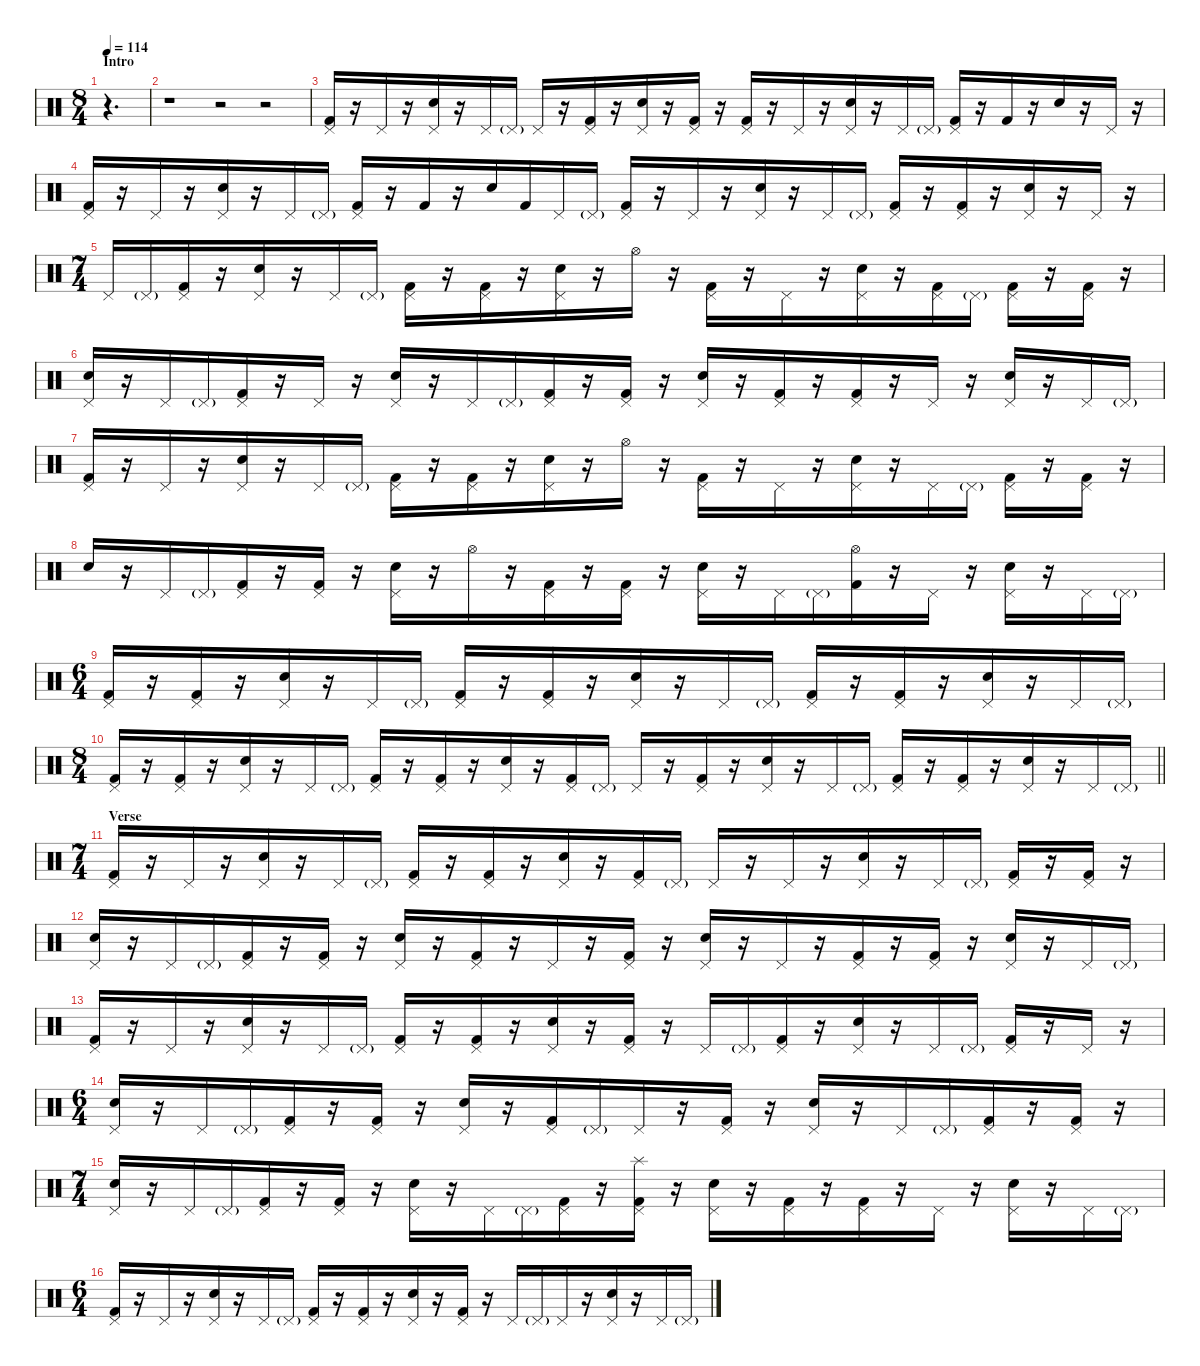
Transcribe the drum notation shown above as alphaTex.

\defaultSystemsLayout 4
\hideDynamics
\bracketExtendMode nobrackets
\singleTrackTrackNamePolicy hidden
\multiTrackTrackNamePolicy hidden
\firstSystemTrackNameMode fullname
\firstSystemTrackNameOrientation horizontal
\otherSystemsTrackNameOrientation horizontal
\track ("Drums" "drm.") {instrument percussion}
\staff {score}
\articulation defaults
\ts (8 4)
\beaming (8 4 4 4 4)
\section ("" "Intro")
\ac
\tempo 114
\clef neutral
\ks c
r.4{d dy f beam Down} |
r.1{beam Down} r.2{beam Down} r.2{beam Down} |
("Pedal Hi-Hat (hit)" "Kick (hit) 2").16{beam Up} r.16{beam Up} "Pedal Hi-Hat (hit)".16{beam Up} r.16{beam Up} ("Pedal Hi-Hat (hit)" "Snare (hit) 2").16{beam Up} r.16{beam Up} "Pedal Hi-Hat (hit)".16{beam Up} "Pedal Hi-Hat (hit)"{g}.16{dy mf beam Up} "Pedal Hi-Hat (hit)".16{dy f beam Up} r.16{beam Up} ("Pedal Hi-Hat (hit)" "Kick (hit) 2").16{beam Up} r.16{beam Up} ("Pedal Hi-Hat (hit)" "Snare (hit) 2").16{beam Up} r.16{beam Up} ("Pedal Hi-Hat (hit)" "Kick (hit) 2").16{beam Up} r.16{beam Up} ("Pedal Hi-Hat (hit)" "Kick (hit) 2").16{beam Up} r.16{beam Up} "Pedal Hi-Hat (hit)".16{beam Up} r.16{beam Up} ("Pedal Hi-Hat (hit)" "Snare (hit) 2").16{beam Up} r.16{beam Up} "Pedal Hi-Hat (hit)".16{beam Up} "Pedal Hi-Hat (hit)"{g}.16{dy mf beam Up} ("Pedal Hi-Hat (hit)" "Kick (hit) 2").16{dy f beam Up} r.16{beam Up} "Kick (hit) 2".16{beam Up} r.16{beam Up} "Snare (hit) 2".16{beam Up} r.16{beam Up} "Pedal Hi-Hat (hit)".16{beam Up} r.16{beam Up} |
("Pedal Hi-Hat (hit)" "Kick (hit) 2").16{beam Up} r.16{beam Up} "Pedal Hi-Hat (hit)".16{beam Up} r.16{beam Up} ("Pedal Hi-Hat (hit)" "Snare (hit) 2").16{beam Up} r.16{beam Up} "Pedal Hi-Hat (hit)".16{beam Up} "Pedal Hi-Hat (hit)"{g}.16{dy mf beam Up} ("Pedal Hi-Hat (hit)" "Kick (hit) 2").16{dy f beam Up} r.16{beam Up} "Kick (hit) 2".16{beam Up} r.16{beam Up} "Snare (hit) 2".16{beam Up} "Kick (hit) 2".16{beam Up} "Pedal Hi-Hat (hit)".16{beam Up} "Pedal Hi-Hat (hit)"{g}.16{dy mf beam Up} ("Pedal Hi-Hat (hit)" "Kick (hit) 2").16{dy f beam Up} r.16{beam Up} "Pedal Hi-Hat (hit)".16{beam Up} r.16{beam Up} ("Pedal Hi-Hat (hit)" "Snare (hit) 2").16{beam Up} r.16{beam Up} "Pedal Hi-Hat (hit)".16{beam Up} "Pedal Hi-Hat (hit)"{g}.16{dy mf beam Up} ("Pedal Hi-Hat (hit)" "Kick (hit) 2").16{dy f beam Up} r.16{beam Up} ("Pedal Hi-Hat (hit)" "Kick (hit) 2").16{beam Up} r.16{beam Up} ("Pedal Hi-Hat (hit)" "Snare (hit) 2").16{beam Up} r.16{beam Up} "Pedal Hi-Hat (hit)".16{beam Up} r.16{beam Up} |
\ts (7 4)
\beaming (8 4 4 4 4)
"Pedal Hi-Hat (hit)".16{beam Up} "Pedal Hi-Hat (hit)"{g}.16{dy mf beam Up} ("Pedal Hi-Hat (hit)" "Kick (hit) 2").16{dy f beam Up} r.16{beam Up} ("Pedal Hi-Hat (hit)" "Snare (hit) 2").16{beam Up} r.16{beam Up} "Pedal Hi-Hat (hit)".16{beam Up} "Pedal Hi-Hat (hit)"{g}.16{dy mf beam Up} ("Pedal Hi-Hat (hit)" "Kick (hit) 2").16{dy f beam Down} r.16{beam Down} ("Pedal Hi-Hat (hit)" "Kick (hit) 2").16{beam Down} r.16{beam Down} ("Pedal Hi-Hat (hit)" "Snare (hit) 2").16{beam Down} r.16{beam Down} "Hi-Hat (open)".16{beam Down} r.16{beam Down} ("Pedal Hi-Hat (hit)" "Kick (hit) 2").16{beam Down} r.16{beam Down} "Pedal Hi-Hat (hit)".16{beam Down} r.16{beam Down} ("Pedal Hi-Hat (hit)" "Snare (hit) 2").16{beam Down} r.16{beam Down} ("Pedal Hi-Hat (hit)" "Kick (hit) 2").16{beam Down} "Pedal Hi-Hat (hit)"{g}.16{dy mf beam Down} ("Pedal Hi-Hat (hit)" "Kick (hit) 2").16{dy f beam Down} r.16{beam Down} ("Pedal Hi-Hat (hit)" "Kick (hit) 2").16{beam Down} r.16{beam Down} |
("Pedal Hi-Hat (hit)" "Snare (hit) 2").16{beam Up} r.16{beam Up} "Pedal Hi-Hat (hit)".16{beam Up} "Pedal Hi-Hat (hit)"{g}.16{dy mf beam Up} ("Pedal Hi-Hat (hit)" "Kick (hit) 2").16{dy f beam Up} r.16{beam Up} "Pedal Hi-Hat (hit)".16{beam Up} r.16{beam Up} ("Pedal Hi-Hat (hit)" "Snare (hit) 2").16{beam Up} r.16{beam Up} "Pedal Hi-Hat (hit)".16{beam Up} "Pedal Hi-Hat (hit)"{g}.16{dy mf beam Up} ("Pedal Hi-Hat (hit)" "Kick (hit) 2").16{dy f beam Up} r.16{beam Up} ("Pedal Hi-Hat (hit)" "Kick (hit) 2").16{beam Up} r.16{beam Up} ("Pedal Hi-Hat (hit)" "Snare (hit) 2").16{beam Up} r.16{beam Up} ("Pedal Hi-Hat (hit)" "Kick (hit) 2").16{beam Up} r.16{beam Up} ("Pedal Hi-Hat (hit)" "Kick (hit) 2").16{beam Up} r.16{beam Up} "Pedal Hi-Hat (hit)".16{beam Up} r.16{beam Up} ("Pedal Hi-Hat (hit)" "Snare (hit) 2").16{beam Up} r.16{beam Up} "Pedal Hi-Hat (hit)".16{beam Up} "Pedal Hi-Hat (hit)"{g}.16{dy mf beam Up} |
("Pedal Hi-Hat (hit)" "Kick (hit) 2").16{dy f beam Up} r.16{beam Up} "Pedal Hi-Hat (hit)".16{beam Up} r.16{beam Up} ("Pedal Hi-Hat (hit)" "Snare (hit) 2").16{beam Up} r.16{beam Up} "Pedal Hi-Hat (hit)".16{beam Up} "Pedal Hi-Hat (hit)"{g}.16{dy mf beam Up} ("Pedal Hi-Hat (hit)" "Kick (hit) 2").16{dy f beam Down} r.16{beam Down} ("Pedal Hi-Hat (hit)" "Kick (hit) 2").16{beam Down} r.16{beam Down} ("Pedal Hi-Hat (hit)" "Snare (hit) 2").16{beam Down} r.16{beam Down} "Hi-Hat (open)".16{beam Down} r.16{beam Down} ("Pedal Hi-Hat (hit)" "Kick (hit) 2").16{beam Down} r.16{beam Down} "Pedal Hi-Hat (hit)".16{beam Down} r.16{beam Down} ("Pedal Hi-Hat (hit)" "Snare (hit) 2").16{beam Down} r.16{beam Down} "Pedal Hi-Hat (hit)".16{beam Down} "Pedal Hi-Hat (hit)"{g}.16{dy mf beam Down} ("Pedal Hi-Hat (hit)" "Kick (hit) 2").16{dy f beam Down} r.16{beam Down} ("Pedal Hi-Hat (hit)" "Kick (hit) 2").16{beam Down} r.16{beam Down} |
"Snare (hit) 2".16{beam Up} r.16{beam Up} "Pedal Hi-Hat (hit)".16{beam Up} "Pedal Hi-Hat (hit)"{g}.16{dy mf beam Up} ("Pedal Hi-Hat (hit)" "Kick (hit) 2").16{dy f beam Up} r.16{beam Up} ("Pedal Hi-Hat (hit)" "Kick (hit) 2").16{beam Up} r.16{beam Up} ("Pedal Hi-Hat (hit)" "Snare (hit) 2").16{beam Down} r.16{beam Down} "Hi-Hat (open)".16{beam Down} r.16{beam Down} ("Pedal Hi-Hat (hit)" "Kick (hit) 2").16{beam Down} r.16{beam Down} ("Pedal Hi-Hat (hit)" "Kick (hit) 2").16{beam Down} r.16{beam Down} ("Pedal Hi-Hat (hit)" "Snare (hit) 2").16{beam Down} r.16{beam Down} "Pedal Hi-Hat (hit)".16{beam Down} "Pedal Hi-Hat (hit)"{g}.16{dy mf beam Down} ("Hi-Hat (open)" "Kick (hit) 2").16{dy f beam Down} r.16{beam Down} "Pedal Hi-Hat (hit)".16{beam Down} r.16{beam Down} ("Pedal Hi-Hat (hit)" "Snare (hit) 2").16{beam Down} r.16{beam Down} "Pedal Hi-Hat (hit)".16{beam Down} "Pedal Hi-Hat (hit)"{g}.16{dy mf beam Down} |
\ts (6 4)
\beaming (8 4 4 4 4)
("Pedal Hi-Hat (hit)" "Kick (hit) 2").16{dy f beam Up} r.16{beam Up} ("Pedal Hi-Hat (hit)" "Kick (hit) 2").16{beam Up} r.16{beam Up} ("Pedal Hi-Hat (hit)" "Snare (hit) 2").16{beam Up} r.16{beam Up} "Pedal Hi-Hat (hit)".16{beam Up} "Pedal Hi-Hat (hit)"{g}.16{dy mf beam Up} ("Pedal Hi-Hat (hit)" "Kick (hit) 2").16{dy f beam Up} r.16{beam Up} ("Pedal Hi-Hat (hit)" "Kick (hit) 2").16{beam Up} r.16{beam Up} ("Pedal Hi-Hat (hit)" "Snare (hit) 2").16{beam Up} r.16{beam Up} "Pedal Hi-Hat (hit)".16{beam Up} "Pedal Hi-Hat (hit)"{g}.16{dy mf beam Up} ("Pedal Hi-Hat (hit)" "Kick (hit) 2").16{dy f beam Up} r.16{beam Up} ("Pedal Hi-Hat (hit)" "Kick (hit) 2").16{beam Up} r.16{beam Up} ("Pedal Hi-Hat (hit)" "Snare (hit) 2").16{beam Up} r.16{beam Up} "Pedal Hi-Hat (hit)".16{beam Up} "Pedal Hi-Hat (hit)"{g}.16{dy mf beam Up} |
\ts (8 4)
\beaming (8 4 4 4 4)
\barLineRight lightlight
("Pedal Hi-Hat (hit)" "Kick (hit) 2").16{dy f beam Up} r.16{beam Up} ("Pedal Hi-Hat (hit)" "Kick (hit) 2").16{beam Up} r.16{beam Up} ("Pedal Hi-Hat (hit)" "Snare (hit) 2").16{beam Up} r.16{beam Up} "Pedal Hi-Hat (hit)".16{beam Up} "Pedal Hi-Hat (hit)"{g}.16{dy mf beam Up} ("Pedal Hi-Hat (hit)" "Kick (hit) 2").16{dy f beam Up} r.16{beam Up} ("Pedal Hi-Hat (hit)" "Kick (hit) 2").16{beam Up} r.16{beam Up} ("Pedal Hi-Hat (hit)" "Snare (hit) 2").16{beam Up} r.16{beam Up} ("Pedal Hi-Hat (hit)" "Kick (hit) 2").16{beam Up} "Pedal Hi-Hat (hit)"{g}.16{dy mf beam Up} "Pedal Hi-Hat (hit)".16{dy f beam Up} r.16{beam Up} ("Pedal Hi-Hat (hit)" "Kick (hit) 2").16{beam Up} r.16{beam Up} ("Pedal Hi-Hat (hit)" "Snare (hit) 2").16{beam Up} r.16{beam Up} "Pedal Hi-Hat (hit)".16{beam Up} "Pedal Hi-Hat (hit)"{g}.16{dy mf beam Up} ("Pedal Hi-Hat (hit)" "Kick (hit) 2").16{dy f beam Up} r.16{beam Up} ("Pedal Hi-Hat (hit)" "Kick (hit) 2").16{beam Up} r.16{beam Up} ("Pedal Hi-Hat (hit)" "Snare (hit) 2").16{beam Up} r.16{beam Up} "Pedal Hi-Hat (hit)".16{beam Up} "Pedal Hi-Hat (hit)"{g}.16{dy mf beam Up} |
\ts (7 4)
\beaming (8 4 4 4 4)
\section ("" "Verse")
("Pedal Hi-Hat (hit)" "Kick (hit) 2").16{dy f beam Up} r.16{beam Up} "Pedal Hi-Hat (hit)".16{beam Up} r.16{beam Up} ("Pedal Hi-Hat (hit)" "Snare (hit) 2").16{beam Up} r.16{beam Up} "Pedal Hi-Hat (hit)".16{beam Up} "Pedal Hi-Hat (hit)"{g}.16{dy mf beam Up} ("Pedal Hi-Hat (hit)" "Kick (hit) 2").16{dy f beam Up} r.16{beam Up} ("Pedal Hi-Hat (hit)" "Kick (hit) 2").16{beam Up} r.16{beam Up} ("Pedal Hi-Hat (hit)" "Snare (hit) 2").16{beam Up} r.16{beam Up} ("Pedal Hi-Hat (hit)" "Kick (hit) 2").16{beam Up} "Pedal Hi-Hat (hit)"{g}.16{dy mf beam Up} "Pedal Hi-Hat (hit)".16{dy f beam Up} r.16{beam Up} "Pedal Hi-Hat (hit)".16{beam Up} r.16{beam Up} ("Pedal Hi-Hat (hit)" "Snare (hit) 2").16{beam Up} r.16{beam Up} "Pedal Hi-Hat (hit)".16{beam Up} "Pedal Hi-Hat (hit)"{g}.16{dy mf beam Up} ("Pedal Hi-Hat (hit)" "Kick (hit) 2").16{dy f beam Up} r.16{beam Up} ("Pedal Hi-Hat (hit)" "Kick (hit) 2").16{beam Up} r.16{beam Up} |
("Pedal Hi-Hat (hit)" "Snare (hit) 2").16{beam Up} r.16{beam Up} "Pedal Hi-Hat (hit)".16{beam Up} "Pedal Hi-Hat (hit)"{g}.16{dy mf beam Up} ("Pedal Hi-Hat (hit)" "Kick (hit) 2").16{dy f beam Up} r.16{beam Up} ("Pedal Hi-Hat (hit)" "Kick (hit) 2").16{beam Up} r.16{beam Up} ("Pedal Hi-Hat (hit)" "Snare (hit) 2").16{beam Up} r.16{beam Up} ("Pedal Hi-Hat (hit)" "Kick (hit) 2").16{beam Up} r.16{beam Up} "Pedal Hi-Hat (hit)".16{beam Up} r.16{beam Up} ("Pedal Hi-Hat (hit)" "Kick (hit) 2").16{beam Up} r.16{beam Up} ("Pedal Hi-Hat (hit)" "Snare (hit) 2").16{beam Up} r.16{beam Up} "Pedal Hi-Hat (hit)".16{beam Up} r.16{beam Up} ("Pedal Hi-Hat (hit)" "Kick (hit) 2").16{beam Up} r.16{beam Up} ("Pedal Hi-Hat (hit)" "Kick (hit) 2").16{beam Up} r.16{beam Up} ("Pedal Hi-Hat (hit)" "Snare (hit) 2").16{beam Up} r.16{beam Up} "Pedal Hi-Hat (hit)".16{beam Up} "Pedal Hi-Hat (hit)"{g}.16{dy mf beam Up} |
("Pedal Hi-Hat (hit)" "Kick (hit) 2").16{dy f beam Up} r.16{beam Up} "Pedal Hi-Hat (hit)".16{beam Up} r.16{beam Up} ("Pedal Hi-Hat (hit)" "Snare (hit) 2").16{beam Up} r.16{beam Up} "Pedal Hi-Hat (hit)".16{beam Up} "Pedal Hi-Hat (hit)"{g}.16{dy mf beam Up} ("Pedal Hi-Hat (hit)" "Kick (hit) 2").16{dy f beam Up} r.16{beam Up} ("Pedal Hi-Hat (hit)" "Kick (hit) 2").16{beam Up} r.16{beam Up} ("Pedal Hi-Hat (hit)" "Snare (hit) 2").16{beam Up} r.16{beam Up} ("Pedal Hi-Hat (hit)" "Kick (hit) 2").16{beam Up} r.16{beam Up} "Pedal Hi-Hat (hit)".16{beam Up} "Pedal Hi-Hat (hit)"{g}.16{dy mf beam Up} ("Pedal Hi-Hat (hit)" "Kick (hit) 2").16{dy f beam Up} r.16{beam Up} ("Pedal Hi-Hat (hit)" "Snare (hit) 2").16{beam Up} r.16{beam Up} "Pedal Hi-Hat (hit)".16{beam Up} "Pedal Hi-Hat (hit)"{g}.16{dy mf beam Up} ("Pedal Hi-Hat (hit)" "Kick (hit) 2").16{dy f beam Up} r.16{beam Up} "Pedal Hi-Hat (hit)".16{beam Up} r.16{beam Up} |
\ts (6 4)
\beaming (8 4 4 4 4)
("Pedal Hi-Hat (hit)" "Snare (hit) 2").16{beam Up} r.16{beam Up} "Pedal Hi-Hat (hit)".16{beam Up} "Pedal Hi-Hat (hit)"{g}.16{dy mf beam Up} ("Pedal Hi-Hat (hit)" "Kick (hit) 2").16{dy f beam Up} r.16{beam Up} ("Pedal Hi-Hat (hit)" "Kick (hit) 2").16{beam Up} r.16{beam Up} ("Pedal Hi-Hat (hit)" "Snare (hit) 2").16{beam Up} r.16{beam Up} ("Pedal Hi-Hat (hit)" "Kick (hit) 2").16{beam Up} "Pedal Hi-Hat (hit)"{g}.16{dy mf beam Up} "Pedal Hi-Hat (hit)".16{dy f beam Up} r.16{beam Up} ("Pedal Hi-Hat (hit)" "Kick (hit) 2").16{beam Up} r.16{beam Up} ("Pedal Hi-Hat (hit)" "Snare (hit) 2").16{beam Up} r.16{beam Up} "Pedal Hi-Hat (hit)".16{beam Up} "Pedal Hi-Hat (hit)"{g}.16{dy mf beam Up} ("Pedal Hi-Hat (hit)" "Kick (hit) 2").16{dy f beam Up} r.16{beam Up} ("Pedal Hi-Hat (hit)" "Kick (hit) 2").16{beam Up} r.16{beam Up} |
\ts (7 4)
\beaming (8 4 4 4 4)
("Pedal Hi-Hat (hit)" "Snare (hit) 2").16{beam Up} r.16{beam Up} "Pedal Hi-Hat (hit)".16{beam Up} "Pedal Hi-Hat (hit)"{g}.16{dy mf beam Up} ("Pedal Hi-Hat (hit)" "Kick (hit) 2").16{dy f beam Up} r.16{beam Up} ("Pedal Hi-Hat (hit)" "Kick (hit) 2").16{beam Up} r.16{beam Up} ("Pedal Hi-Hat (hit)" "Snare (hit) 2").16{beam Down} r.16{beam Down} "Pedal Hi-Hat (hit)".16{beam Down} "Pedal Hi-Hat (hit)"{g}.16{dy mf beam Down} ("Pedal Hi-Hat (hit)" "Kick (hit) 2").16{dy f beam Down} r.16{beam Down} ("Splash (hit)" "Pedal Hi-Hat (hit)" "Kick (hit) 2").16{beam Down} r.16{beam Down} ("Pedal Hi-Hat (hit)" "Snare (hit) 2").16{beam Down} r.16{beam Down} ("Pedal Hi-Hat (hit)" "Kick (hit) 2").16{beam Down} r.16{beam Down} ("Pedal Hi-Hat (hit)" "Kick (hit) 2").16{beam Down} r.16{beam Down} "Pedal Hi-Hat (hit)".16{beam Down} r.16{beam Down} ("Pedal Hi-Hat (hit)" "Snare (hit) 2").16{beam Down} r.16{beam Down} "Pedal Hi-Hat (hit)".16{beam Down} "Pedal Hi-Hat (hit)"{g}.16{dy mf beam Down} |
\ts (6 4)
\beaming (8 4 4 4 4)
("Pedal Hi-Hat (hit)" "Kick (hit) 2").16{dy f beam Up} r.16{beam Up} "Pedal Hi-Hat (hit)".16{beam Up} r.16{beam Up} ("Pedal Hi-Hat (hit)" "Snare (hit) 2").16{beam Up} r.16{beam Up} "Pedal Hi-Hat (hit)".16{beam Up} "Pedal Hi-Hat (hit)"{g}.16{dy mf beam Up} ("Pedal Hi-Hat (hit)" "Kick (hit) 2").16{dy f beam Up} r.16{beam Up} ("Pedal Hi-Hat (hit)" "Kick (hit) 2").16{beam Up} r.16{beam Up} ("Pedal Hi-Hat (hit)" "Snare (hit) 2").16{beam Up} r.16{beam Up} ("Pedal Hi-Hat (hit)" "Kick (hit) 2").16{beam Up} r.16{beam Up} "Pedal Hi-Hat (hit)".16{beam Up} "Pedal Hi-Hat (hit)"{g}.16{dy mf beam Up} "Pedal Hi-Hat (hit)".16{dy f beam Up} r.16{beam Up} ("Pedal Hi-Hat (hit)" "Snare (hit) 2").16{beam Up} r.16{beam Up} "Pedal Hi-Hat (hit)".16{beam Up} "Pedal Hi-Hat (hit)"{g}.16{dy mf beam Up}
